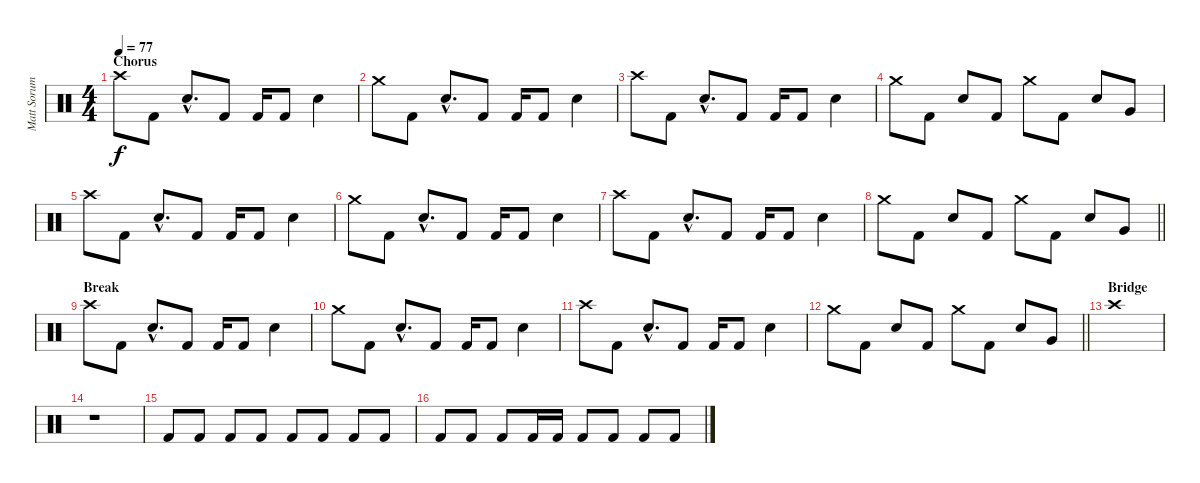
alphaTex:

\track ("Matt Sorum (Drums)" "Matt Sorum") {instrument percussion}
\staff {score}
\articulation defaults
\ts (4 4)
\section ("" "Chorus")
\tempo 77
\clef neutral
\ks c "Crash high (hit)".8{dy f} "Kick (hit) 2".8 "Electric Snare (hit)"{hac}.8{d} "Kick (hit) 2".8 "Kick (hit) 2".16 "Kick (hit) 2".8 "Electric Snare (hit)".4
|
"Crash medium (hit)".8 "Kick (hit) 2".8 "Electric Snare (hit)"{hac}.8{d} "Kick (hit) 2".8 "Kick (hit) 2".16 "Kick (hit) 2".8 "Electric Snare (hit)".4 |
"Crash high (hit)".8 "Kick (hit) 2".8 "Electric Snare (hit)"{hac}.8{d} "Kick (hit) 2".8 "Kick (hit) 2".16 "Kick (hit) 2".8 "Electric Snare (hit)".4 |
"Crash medium (hit)".8 "Kick (hit) 2".8 "Electric Snare (hit)".8 "Kick (hit) 2".8 "Crash medium (hit)".8 "Kick (hit) 2".8 "Electric Snare (hit)".8 "Very Low Tom (hit)".8 |
"Crash high (hit)".8 "Kick (hit) 2".8 "Electric Snare (hit)"{hac}.8{d} "Kick (hit) 2".8 "Kick (hit) 2".16 "Kick (hit) 2".8 "Electric Snare (hit)".4 |
"Crash medium (hit)".8 "Kick (hit) 2".8 "Electric Snare (hit)"{hac}.8{d} "Kick (hit) 2".8 "Kick (hit) 2".16 "Kick (hit) 2".8 "Electric Snare (hit)".4 |
"Crash high (hit)".8 "Kick (hit) 2".8 "Electric Snare (hit)"{hac}.8{d} "Kick (hit) 2".8 "Kick (hit) 2".16 "Kick (hit) 2".8 "Electric Snare (hit)".4 |
\barLineRight lightlight "Crash medium (hit)".8 "Kick (hit) 2".8 "Electric Snare (hit)".8 "Kick (hit) 2".8 "Crash medium (hit)".8 "Kick (hit) 2".8 "Electric Snare (hit)".8 "Very Low Tom (hit)".8
|
\section ("" "Break")
"Crash high (hit)".8 "Kick (hit) 2".8 "Electric Snare (hit)"{hac}.8{d} "Kick (hit) 2".8 "Kick (hit) 2".16 "Kick (hit) 2".8 "Electric Snare (hit)".4 |
"Crash medium (hit)".8 "Kick (hit) 2".8 "Electric Snare (hit)"{hac}.8{d} "Kick (hit) 2".8 "Kick (hit) 2".16 "Kick (hit) 2".8 "Electric Snare (hit)".4 |
"Crash high (hit)".8 "Kick (hit) 2".8 "Electric Snare (hit)"{hac}.8{d} "Kick (hit) 2".8 "Kick (hit) 2".16 "Kick (hit) 2".8 "Electric Snare (hit)".4 |
\barLineRight lightlight "Crash medium (hit)".8 "Kick (hit) 2".8 "Electric Snare (hit)".8 "Kick (hit) 2".8 "Crash medium (hit)".8 "Kick (hit) 2".8 "Electric Snare (hit)".8 "Very Low Tom (hit)".8
|
\section ("" "Bridge")
"Crash high (hit)".1 |
r.1 |
"Kick (hit) 2".8 "Kick (hit) 2".8 "Kick (hit) 2".8 "Kick (hit) 2".8 "Kick (hit) 2".8 "Kick (hit) 2".8 "Kick (hit) 2".8 "Kick (hit) 2".8 |
"Kick (hit) 2".8 "Kick (hit) 2".8 "Kick (hit) 2".8 "Kick (hit) 2".16 "Kick (hit) 2".16 "Kick (hit) 2".8 "Kick (hit) 2".8 "Kick (hit) 2".8 "Kick (hit) 2".8
